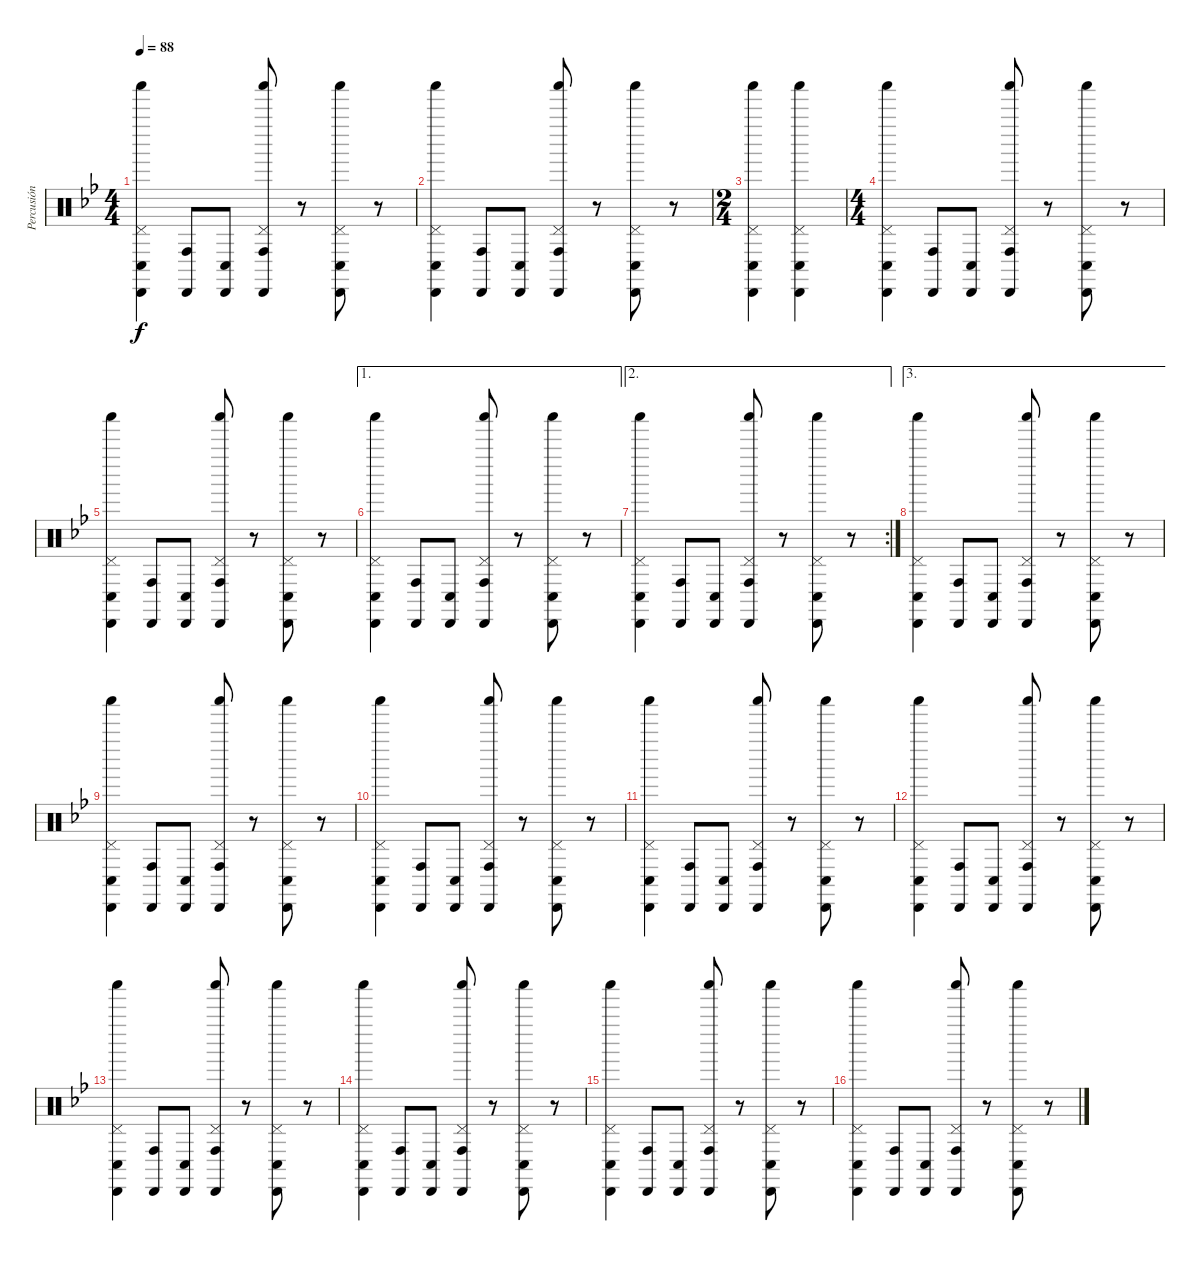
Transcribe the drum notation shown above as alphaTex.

\track ("Percusión" "Percusión") {instrument percussion}
\staff {score}
\articulation defaults
\ts (4 4)
\tempo 88
\clef neutral
\ks bb
("Cabasa (hit)" "Conga low (hit)" "Pedal Hi-Hat (hit)" "Shaker (hit)").4{dy f} ("Cabasa (hit)" "Conga high (hit)").8 ("Cabasa (hit)" "Conga low (hit)").8 ("Cabasa (hit)" "Conga high (hit)" "Pedal Hi-Hat (hit)" "Shaker (hit)").8 r.8 ("Cabasa (hit)" "Conga low (hit)" "Pedal Hi-Hat (hit)" "Shaker (hit)").8 r.8 |
("Cabasa (hit)" "Conga low (hit)" "Pedal Hi-Hat (hit)" "Shaker (hit)").4 ("Cabasa (hit)" "Conga high (hit)").8 ("Cabasa (hit)" "Conga low (hit)").8 ("Cabasa (hit)" "Conga high (hit)" "Pedal Hi-Hat (hit)" "Shaker (hit)").8 r.8 ("Cabasa (hit)" "Conga low (hit)" "Pedal Hi-Hat (hit)" "Shaker (hit)").8 r.8 |
\ts (2 4)
("Cabasa (hit)" "Conga low (hit)" "Pedal Hi-Hat (hit)" "Shaker (hit)").4 ("Cabasa (hit)" "Conga low (hit)" "Pedal Hi-Hat (hit)" "Shaker (hit)").4 |
\ts (4 4)
("Cabasa (hit)" "Conga low (hit)" "Pedal Hi-Hat (hit)" "Shaker (hit)").4 ("Cabasa (hit)" "Conga high (hit)").8 ("Cabasa (hit)" "Conga low (hit)").8 ("Cabasa (hit)" "Conga high (hit)" "Pedal Hi-Hat (hit)" "Shaker (hit)").8 r.8 ("Cabasa (hit)" "Conga low (hit)" "Pedal Hi-Hat (hit)" "Shaker (hit)").8 r.8 |
("Cabasa (hit)" "Conga low (hit)" "Pedal Hi-Hat (hit)" "Shaker (hit)").4 ("Cabasa (hit)" "Conga high (hit)").8 ("Cabasa (hit)" "Conga low (hit)").8 ("Cabasa (hit)" "Conga high (hit)" "Pedal Hi-Hat (hit)" "Shaker (hit)").8 r.8 ("Cabasa (hit)" "Conga low (hit)" "Pedal Hi-Hat (hit)" "Shaker (hit)").8 r.8 |
\ae 1
("Cabasa (hit)" "Conga low (hit)" "Pedal Hi-Hat (hit)" "Shaker (hit)").4 ("Cabasa (hit)" "Conga high (hit)").8 ("Cabasa (hit)" "Conga low (hit)").8 ("Cabasa (hit)" "Conga high (hit)" "Pedal Hi-Hat (hit)" "Shaker (hit)").8 r.8 ("Cabasa (hit)" "Conga low (hit)" "Pedal Hi-Hat (hit)" "Shaker (hit)").8 r.8 |
\ae 2
\rc 2
("Cabasa (hit)" "Conga low (hit)" "Pedal Hi-Hat (hit)" "Shaker (hit)").4 ("Cabasa (hit)" "Conga high (hit)").8 ("Cabasa (hit)" "Conga low (hit)").8 ("Cabasa (hit)" "Conga high (hit)" "Pedal Hi-Hat (hit)" "Shaker (hit)").8 r.8 ("Cabasa (hit)" "Conga low (hit)" "Pedal Hi-Hat (hit)" "Shaker (hit)").8 r.8 |
\ae 3
("Cabasa (hit)" "Conga low (hit)" "Pedal Hi-Hat (hit)" "Shaker (hit)").4 ("Cabasa (hit)" "Conga high (hit)").8 ("Cabasa (hit)" "Conga low (hit)").8 ("Cabasa (hit)" "Conga high (hit)" "Pedal Hi-Hat (hit)" "Shaker (hit)").8 r.8 ("Cabasa (hit)" "Conga low (hit)" "Pedal Hi-Hat (hit)" "Shaker (hit)").8 r.8 |
("Cabasa (hit)" "Conga low (hit)" "Pedal Hi-Hat (hit)" "Shaker (hit)").4 ("Cabasa (hit)" "Conga high (hit)").8 ("Cabasa (hit)" "Conga low (hit)").8 ("Cabasa (hit)" "Conga high (hit)" "Pedal Hi-Hat (hit)" "Shaker (hit)").8 r.8 ("Cabasa (hit)" "Conga low (hit)" "Pedal Hi-Hat (hit)" "Shaker (hit)").8 r.8 |
("Cabasa (hit)" "Conga low (hit)" "Pedal Hi-Hat (hit)" "Shaker (hit)").4 ("Cabasa (hit)" "Conga high (hit)").8 ("Cabasa (hit)" "Conga low (hit)").8 ("Cabasa (hit)" "Conga high (hit)" "Pedal Hi-Hat (hit)" "Shaker (hit)").8 r.8 ("Cabasa (hit)" "Conga low (hit)" "Pedal Hi-Hat (hit)" "Shaker (hit)").8 r.8 |
("Cabasa (hit)" "Conga low (hit)" "Pedal Hi-Hat (hit)" "Shaker (hit)").4 ("Cabasa (hit)" "Conga high (hit)").8 ("Cabasa (hit)" "Conga low (hit)").8 ("Cabasa (hit)" "Conga high (hit)" "Pedal Hi-Hat (hit)" "Shaker (hit)").8 r.8 ("Cabasa (hit)" "Conga low (hit)" "Pedal Hi-Hat (hit)" "Shaker (hit)").8 r.8 |
("Cabasa (hit)" "Conga low (hit)" "Pedal Hi-Hat (hit)" "Shaker (hit)").4 ("Cabasa (hit)" "Conga high (hit)").8 ("Cabasa (hit)" "Conga low (hit)").8 ("Cabasa (hit)" "Conga high (hit)" "Pedal Hi-Hat (hit)" "Shaker (hit)").8 r.8 ("Cabasa (hit)" "Conga low (hit)" "Pedal Hi-Hat (hit)" "Shaker (hit)").8 r.8 |
("Cabasa (hit)" "Conga low (hit)" "Pedal Hi-Hat (hit)" "Shaker (hit)").4 ("Cabasa (hit)" "Conga high (hit)").8 ("Cabasa (hit)" "Conga low (hit)").8 ("Cabasa (hit)" "Conga high (hit)" "Pedal Hi-Hat (hit)" "Shaker (hit)").8 r.8 ("Cabasa (hit)" "Conga low (hit)" "Pedal Hi-Hat (hit)" "Shaker (hit)").8 r.8 |
("Cabasa (hit)" "Conga low (hit)" "Pedal Hi-Hat (hit)" "Shaker (hit)").4 ("Cabasa (hit)" "Conga high (hit)").8 ("Cabasa (hit)" "Conga low (hit)").8 ("Cabasa (hit)" "Conga high (hit)" "Pedal Hi-Hat (hit)" "Shaker (hit)").8 r.8 ("Cabasa (hit)" "Conga low (hit)" "Pedal Hi-Hat (hit)" "Shaker (hit)").8 r.8 |
("Cabasa (hit)" "Conga low (hit)" "Pedal Hi-Hat (hit)" "Shaker (hit)").4 ("Cabasa (hit)" "Conga high (hit)").8 ("Cabasa (hit)" "Conga low (hit)").8 ("Cabasa (hit)" "Conga high (hit)" "Pedal Hi-Hat (hit)" "Shaker (hit)").8 r.8 ("Cabasa (hit)" "Conga low (hit)" "Pedal Hi-Hat (hit)" "Shaker (hit)").8 r.8 |
("Cabasa (hit)" "Conga low (hit)" "Pedal Hi-Hat (hit)" "Shaker (hit)").4 ("Cabasa (hit)" "Conga high (hit)").8 ("Cabasa (hit)" "Conga low (hit)").8 ("Cabasa (hit)" "Conga high (hit)" "Pedal Hi-Hat (hit)" "Shaker (hit)").8 r.8 ("Cabasa (hit)" "Conga low (hit)" "Pedal Hi-Hat (hit)" "Shaker (hit)").8 r.8
